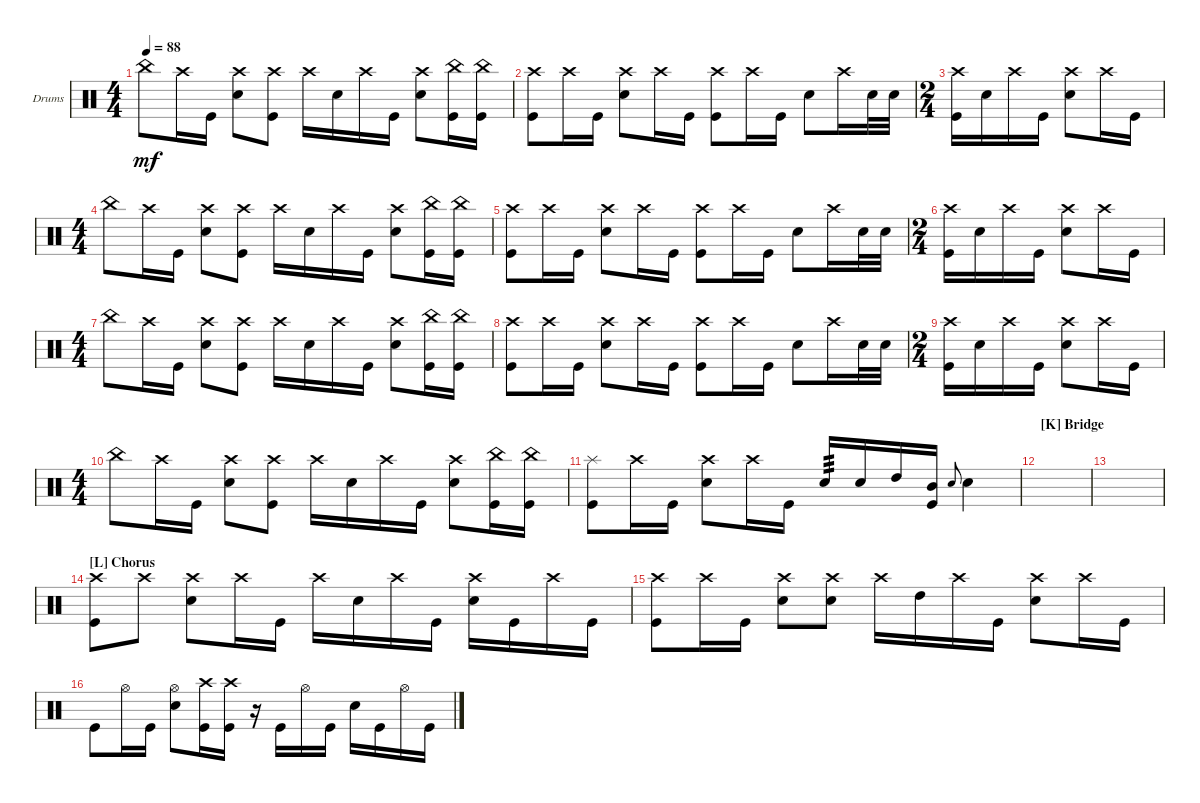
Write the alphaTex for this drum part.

\defaultSystemsLayout 4
\bracketExtendMode groupsimilarinstruments
\firstSystemTrackNameOrientation horizontal
\otherSystemsTrackNameOrientation horizontal
\track ("Drumkit" "Drums") {instrument percussion}
\staff {score}
\articulation defaults
\ts (4 4)
\tempo 88
\clef neutral
\scale
0.390805
\ks c "China (hit)".8{dy mf} "Crash high (hit)".16 "Kick (hit)".16
("Snare (hit) 2" "Crash high (hit)").8 ("Crash high (hit)" "Kick (hit)").8 "Crash high (hit)".16 "Snare (hit) 2".16 "Crash high (hit)".16 "Kick (hit)".16 ("Crash high (hit)" "Snare (hit) 2").8 ("China (hit)" "Kick (hit)").16 ("China (hit)" "Kick (hit)").16 |
\scale
0.218391 ("Crash high (hit)" "Kick (hit)").8 "Crash high (hit)".16 "Kick (hit)".16 ("Snare (hit) 2" "Crash high (hit)").8 "Crash high (hit)".16 "Kick (hit)".16 ("Crash high (hit)" "Kick (hit)").8 "Crash high (hit)".16 "Kick (hit)".16 "Snare (hit) 2".8 "Crash high (hit)".16 "Snare (hit) 2".32 "Snare (hit) 2".32 |
\ts (2 4)
\scale
0.390805 ("Kick (hit)" "Crash high (hit)").16 "Snare (hit) 2".16 "Crash high (hit)".16 "Kick (hit)".16 ("Snare (hit) 2" "Crash high (hit)").8 "Crash high (hit)".16 "Kick (hit)".16 |
\ts (4 4)
\scale
0.390805 "China (hit)".8 "Crash high (hit)".16 "Kick (hit)".16 ("Snare (hit) 2" "Crash high (hit)").8 ("Crash high (hit)" "Kick (hit)").8 "Crash high (hit)".16 "Snare (hit) 2".16 "Crash high (hit)".16 "Kick (hit)".16 ("Crash high (hit)" "Snare (hit) 2").8 ("China (hit)" "Kick (hit)").16 ("China (hit)" "Kick (hit)").16 |
\scale
0.218391 ("Crash high (hit)" "Kick (hit)").8 "Crash high (hit)".16 "Kick (hit)".16 ("Snare (hit) 2" "Crash high (hit)").8 "Crash high (hit)".16 "Kick (hit)".16 ("Crash high (hit)" "Kick (hit)").8 "Crash high (hit)".16 "Kick (hit)".16 "Snare (hit) 2".8 "Crash high (hit)".16 "Snare (hit) 2".32 "Snare (hit) 2".32 |
\ts (2 4)
\scale
0.390805 ("Kick (hit)" "Crash high (hit)").16 "Snare (hit) 2".16 "Crash high (hit)".16 "Kick (hit)".16 ("Snare (hit) 2" "Crash high (hit)").8 "Crash high (hit)".16 "Kick (hit)".16 |
\ts (4 4)
\scale
0.390805 "China (hit)".8 "Crash high (hit)".16 "Kick (hit)".16 ("Snare (hit) 2" "Crash high (hit)").8 ("Crash high (hit)" "Kick (hit)").8 "Crash high (hit)".16 "Snare (hit) 2".16 "Crash high (hit)".16 "Kick (hit)".16 ("Crash high (hit)" "Snare (hit) 2").8 ("China (hit)" "Kick (hit)").16 ("China (hit)" "Kick (hit)").16 |
\scale
0.218391 ("Crash high (hit)" "Kick (hit)").8 "Crash high (hit)".16 "Kick (hit)".16 ("Snare (hit) 2" "Crash high (hit)").8 "Crash high (hit)".16 "Kick (hit)".16 ("Crash high (hit)" "Kick (hit)").8 "Crash high (hit)".16 "Kick (hit)".16 "Snare (hit) 2".8 "Crash high (hit)".16 "Snare (hit) 2".32 "Snare (hit) 2".32 |
\ts (2 4)
\scale
0.390805 ("Kick (hit)" "Crash high (hit)").16 "Snare (hit) 2".16 "Crash high (hit)".16 "Kick (hit)".16 ("Snare (hit) 2" "Crash high (hit)").8 "Crash high (hit)".16 "Kick (hit)".16 |
\ts (4 4)
\scale
0.390805 "China (hit)".8 "Crash high (hit)".16 "Kick (hit)".16 ("Snare (hit) 2" "Crash high (hit)").8 ("Crash high (hit)" "Kick (hit)").8 "Crash high (hit)".16 "Snare (hit) 2".16 "Crash high (hit)".16 "Kick (hit)".16 ("Crash high (hit)" "Snare (hit) 2").8 ("China (hit)" "Kick (hit)").16 ("China (hit)" "Kick (hit)").16 |
\scale
0.218391 ("Splash (hit)" "Kick (hit)").8 "Crash high (hit)".16 "Kick (hit)".16 ("Snare (hit) 2" "Crash high (hit)").8 "Crash high (hit)".16 "Kick (hit)".16 "Snare (hit) 2".16{tp 3} "Snare (hit) 2".16 "High Tom (hit)".16 ("Kick (hit)" "Mid Tom (hit)").16 "Snare (hit) 2".8{gr onbeat} "Snare (hit) 2".4 |
\section ("K" "Bridge")
\scale
0.333333 |
\scale
0.333333 |
\section ("L" "Chorus")
\scale
0.333333 ("Kick (hit)" "Crash high (hit)").8 "Crash high (hit)".8 ("Crash high (hit)" "Snare (hit) 2").8 "Crash high (hit)".16 "Kick (hit)".16 "Crash high (hit)".16 "Snare (hit) 2".16 "Crash high (hit)".16 "Kick (hit)".16 ("Snare (hit) 2" "Crash high (hit)").16 "Kick (hit)".16 "Crash high (hit)".16 "Kick (hit)".16 |
\scale
0.333333 ("Crash high (hit)" "Kick (hit)").8 "Crash high (hit)".16 "Kick (hit)".16 ("Snare (hit) 2" "Crash high (hit)").8 ("Snare (hit) 2" "Crash high (hit)").8 "Crash high (hit)".16 "High Tom (hit)".16 "Crash high (hit)".16 "Kick (hit)".16 ("Snare (hit) 2" "Crash high (hit)").8 "Crash high (hit)".16 "Kick (hit)".16 |
\scale
0.333333 "Kick (hit)".8 "Hi-Hat (open)".16 "Kick (hit)".16 ("Snare (hit) 2" "Hi-Hat (open)").8 ("Kick (hit)" "Crash high (hit)").16 ("Kick (hit)" "Crash high (hit)").16 r.16 "Kick (hit)".16 "Hi-Hat (open)".16 "Kick (hit)".16 "Snare (hit) 2".16 "Kick (hit)".16 "Hi-Hat (open)".16 "Kick (hit)".16
